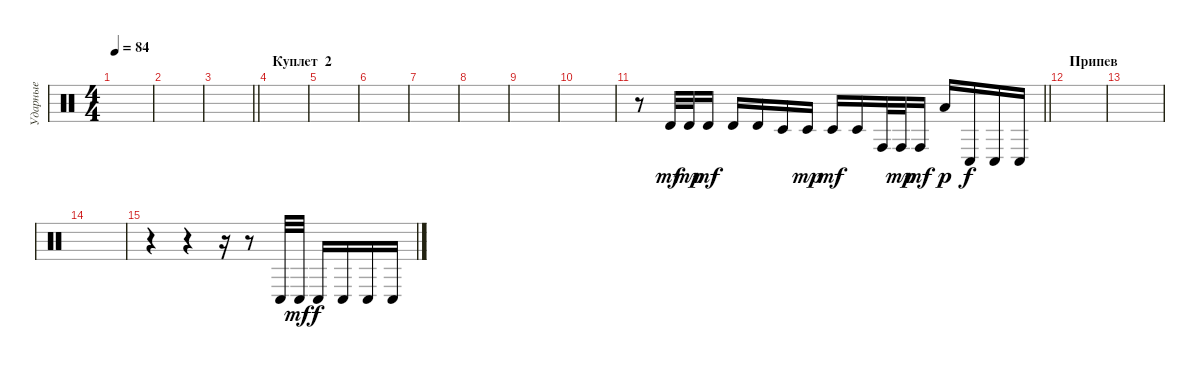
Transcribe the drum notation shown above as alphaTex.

\track ("Ударные" "Ударные") {instrument percussion}
\staff {score}
\articulation defaults
\ts (4 4)
\tempo 84
\clef neutral
\ks c
|
|
\barLineRight lightlight
|
\section ("" "Куплет  2")
|
|
|
|
|
|
|
\barLineRight lightlight
r.8 "Timbale high (hit)".32{dy mf} "Timbale high (hit)".32{dy mp} "Timbale high (hit)".16{dy mf} "Timbale high (hit)".16 "Timbale high (hit)".16 "Timbale low (hit)".16 "Timbale low (hit)".16{dy mp} "Timbale low (hit)".16{dy mf} "Timbale low (hit)".16 "Conga high (hit)".32 "Conga high (hit)".32{dy mp} "Conga high (hit)".16{dy mf} "Low Tom (hit)".16{dy p} "Conga low (hit)".16{dy f} "Conga low (hit)".16 "Conga low (hit)".16 |
\section ("" "Припев")
|
|
|
r.4 r.4 r.16 r.8 "Conga low (hit)".32 "Conga low (hit)".32{dy mf} "Conga low (hit)".16{dy f} "Conga low (hit)".16 "Conga low (hit)".16 "Conga low (hit)".16
